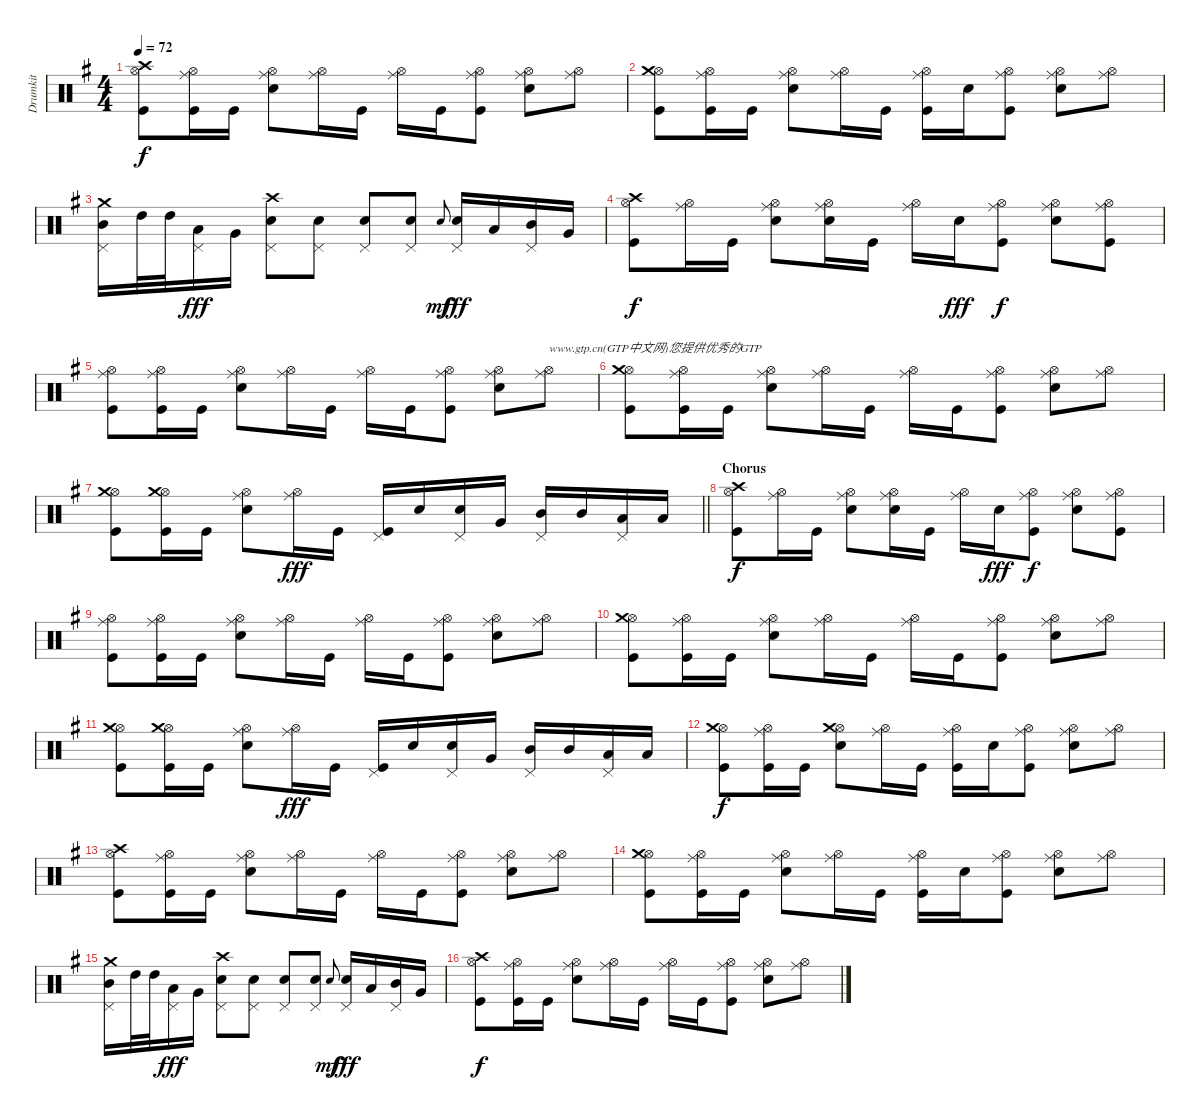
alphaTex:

\track ("Drumkit" "Drumkit") {instrument percussion}
\staff {score}
\articulation defaults
\ts (4 4)
\tempo 72
\clef neutral
\ks g
("Hi-Hat (open)" "Crash high (hit)" "Kick (hit)").8{dy f} ("Hi-Hat (open)" "Ride (middle)" "Kick (hit)").16 "Kick (hit)".16 ("Hi-Hat (open)" "Ride (middle)" "Snare (hit) 2").8 ("Hi-Hat (open)" "Ride (middle)").16 "Kick (hit)".16 ("Hi-Hat (open)" "Ride (middle)").16 "Kick (hit)".16 ("Hi-Hat (open)" "Ride (middle)" "Kick (hit)").8 ("Hi-Hat (open)" "Ride (middle)" "Snare (hit) 2").8 ("Hi-Hat (open)" "Ride (middle)").8 |
("Hi-Hat (open)" "Crash medium (hit)" "Kick (hit)").8 ("Hi-Hat (open)" "Ride (middle)" "Kick (hit)").16 "Kick (hit)".16 ("Hi-Hat (open)" "Ride (middle)" "Snare (hit) 2").8 ("Hi-Hat (open)" "Ride (middle)").16 "Kick (hit)".16 ("Hi-Hat (open)" "Ride (middle)" "Kick (hit)").16 "Snare (hit) 2".16 ("Hi-Hat (open)" "Ride (middle)" "Kick (hit)").8 ("Hi-Hat (open)" "Ride (middle)" "Snare (hit) 2").8 ("Hi-Hat (open)" "Ride (middle)").8 |
("Pedal Hi-Hat (hit)" "Crash medium (hit)" "Mid Tom (hit)").16 "High Tom (hit)".32 "High Tom (hit)".32 ("Pedal Hi-Hat (hit)" "Low Tom (hit)").16{dy fff} "Very Low Tom (hit)".16 ("Pedal Hi-Hat (hit)" "Crash high (hit)" "Snare (hit) 2").8 ("Pedal Hi-Hat (hit)" "Snare (hit) 2").8 ("Pedal Hi-Hat (hit)" "Snare (hit) 2").8 ("Pedal Hi-Hat (hit)" "Snare (hit) 2").8 "Snare (hit)".8{gr onbeat dy mf} ("Pedal Hi-Hat (hit)" "Snare (hit) 2").16{dy fff} "Low Tom (hit)".16 ("Pedal Hi-Hat (hit)" "Mid Tom (hit)").16 "Very Low Tom (hit)".16 |
("Hi-Hat (open)" "Crash high (hit)" "Kick (hit)").8{dy f} ("Hi-Hat (open)" "Ride (middle)").16 "Kick (hit)".16 ("Hi-Hat (open)" "Ride (middle)" "Snare (hit) 2").8 ("Hi-Hat (open)" "Ride (middle)" "Snare (hit) 2").16 "Kick (hit)".16 ("Hi-Hat (open)" "Ride (middle)").16 "Snare (hit) 2".16{dy fff} ("Hi-Hat (open)" "Ride (middle)" "Kick (hit)").8{dy f} ("Hi-Hat (open)" "Ride (middle)" "Snare (hit) 2").8 ("Hi-Hat (open)" "Ride (middle)" "Kick (hit)").8 |
("Hi-Hat (open)" "Ride (middle)" "Kick (hit)").8 ("Hi-Hat (open)" "Ride (middle)" "Kick (hit)").16 "Kick (hit)".16 ("Hi-Hat (open)" "Ride (middle)" "Snare (hit) 2").8 ("Hi-Hat (open)" "Ride (middle)").16 "Kick (hit)".16 ("Hi-Hat (open)" "Ride (middle)").16 "Kick (hit)".16 ("Hi-Hat (open)" "Ride (middle)" "Kick (hit)").8 ("Hi-Hat (open)" "Ride (middle)" "Snare (hit) 2").8 ("Hi-Hat (open)" "Ride (middle)").8{txt "www.gtp.cn(GTP中文网)您提供优秀的GTP"} |
("Hi-Hat (open)" "Crash medium (hit)" "Kick (hit)").8 ("Hi-Hat (open)" "Ride (middle)" "Kick (hit)").16 "Kick (hit)".16 ("Hi-Hat (open)" "Ride (middle)" "Snare (hit) 2").8 ("Hi-Hat (open)" "Ride (middle)").16 "Kick (hit)".16 ("Hi-Hat (open)" "Ride (middle)").16 "Kick (hit)".16 ("Hi-Hat (open)" "Ride (middle)" "Kick (hit)").8 ("Hi-Hat (open)" "Ride (middle)" "Snare (hit) 2").8 ("Hi-Hat (open)" "Ride (middle)").8 |
\barLineRight lightlight
("Hi-Hat (open)" "Crash medium (hit)" "Kick (hit)").8 ("Hi-Hat (open)" "Crash medium (hit)" "Kick (hit)").16 "Kick (hit)".16 ("Hi-Hat (open)" "Ride (middle)" "Snare (hit) 2").8 ("Hi-Hat (open)" "Ride (middle)").16{dy fff} "Kick (hit)".16 ("Pedal Hi-Hat (hit)" "Kick (hit)").16 "Snare (hit) 2".16 ("Pedal Hi-Hat (hit)" "Snare (hit) 2").16 "Very Low Tom (hit)".16 ("Pedal Hi-Hat (hit)" "Mid Tom (hit)").16 "Mid Tom (hit)".16 ("Pedal Hi-Hat (hit)" "Low Tom (hit)").16 "Low Tom (hit)".16 |
\section ("" "Chorus")
("Hi-Hat (open)" "Crash high (hit)" "Kick (hit)").8{dy f} ("Hi-Hat (open)" "Ride (middle)").16 "Kick (hit)".16 ("Hi-Hat (open)" "Ride (middle)" "Snare (hit) 2").8 ("Hi-Hat (open)" "Ride (middle)" "Snare (hit) 2").16 "Kick (hit)".16 ("Hi-Hat (open)" "Ride (middle)").16 "Snare (hit) 2".16{dy fff} ("Hi-Hat (open)" "Ride (middle)" "Kick (hit)").8{dy f} ("Hi-Hat (open)" "Ride (middle)" "Snare (hit) 2").8 ("Hi-Hat (open)" "Ride (middle)" "Kick (hit)").8 |
("Hi-Hat (open)" "Ride (middle)" "Kick (hit)").8 ("Hi-Hat (open)" "Ride (middle)" "Kick (hit)").16 "Kick (hit)".16 ("Hi-Hat (open)" "Ride (middle)" "Snare (hit) 2").8 ("Hi-Hat (open)" "Ride (middle)").16 "Kick (hit)".16 ("Hi-Hat (open)" "Ride (middle)").16 "Kick (hit)".16 ("Hi-Hat (open)" "Ride (middle)" "Kick (hit)").8 ("Hi-Hat (open)" "Ride (middle)" "Snare (hit) 2").8 ("Hi-Hat (open)" "Ride (middle)").8 |
("Hi-Hat (open)" "Crash medium (hit)" "Kick (hit)").8 ("Hi-Hat (open)" "Ride (middle)" "Kick (hit)").16 "Kick (hit)".16 ("Hi-Hat (open)" "Ride (middle)" "Snare (hit) 2").8 ("Hi-Hat (open)" "Ride (middle)").16 "Kick (hit)".16 ("Hi-Hat (open)" "Ride (middle)").16 "Kick (hit)".16 ("Hi-Hat (open)" "Ride (middle)" "Kick (hit)").8 ("Hi-Hat (open)" "Ride (middle)" "Snare (hit) 2").8 ("Hi-Hat (open)" "Ride (middle)").8 |
("Hi-Hat (open)" "Crash medium (hit)" "Kick (hit)").8 ("Hi-Hat (open)" "Crash medium (hit)" "Kick (hit)").16 "Kick (hit)".16 ("Hi-Hat (open)" "Ride (middle)" "Snare (hit) 2").8 ("Hi-Hat (open)" "Ride (middle)").16{dy fff} "Kick (hit)".16 ("Pedal Hi-Hat (hit)" "Kick (hit)").16 "Snare (hit) 2".16 ("Pedal Hi-Hat (hit)" "Snare (hit) 2").16 "Very Low Tom (hit)".16 ("Pedal Hi-Hat (hit)" "Mid Tom (hit)").16 "Mid Tom (hit)".16 ("Pedal Hi-Hat (hit)" "Low Tom (hit)").16 "Low Tom (hit)".16 |
("Hi-Hat (open)" "Crash medium (hit)" "Kick (hit)").8{dy f} ("Hi-Hat (open)" "Ride (middle)" "Kick (hit)").16 "Kick (hit)".16 ("Hi-Hat (open)" "Crash medium (hit)" "Snare (hit) 2").8 ("Hi-Hat (open)" "Ride (middle)").16 "Kick (hit)".16 ("Hi-Hat (open)" "Ride (middle)" "Kick (hit)").16 "Snare (hit) 2".16 ("Hi-Hat (open)" "Ride (middle)" "Kick (hit)").8 ("Hi-Hat (open)" "Ride (middle)" "Snare (hit) 2").8 ("Hi-Hat (open)" "Ride (middle)").8 |
("Hi-Hat (open)" "Crash high (hit)" "Kick (hit)").8 ("Hi-Hat (open)" "Ride (middle)" "Kick (hit)").16 "Kick (hit)".16 ("Hi-Hat (open)" "Ride (middle)" "Snare (hit) 2").8 ("Hi-Hat (open)" "Ride (middle)").16 "Kick (hit)".16 ("Hi-Hat (open)" "Ride (middle)").16 "Kick (hit)".16 ("Hi-Hat (open)" "Ride (middle)" "Kick (hit)").8 ("Hi-Hat (open)" "Ride (middle)" "Snare (hit) 2").8 ("Hi-Hat (open)" "Ride (middle)").8 |
("Hi-Hat (open)" "Crash medium (hit)" "Kick (hit)").8 ("Hi-Hat (open)" "Ride (middle)" "Kick (hit)").16 "Kick (hit)".16 ("Hi-Hat (open)" "Ride (middle)" "Snare (hit) 2").8 ("Hi-Hat (open)" "Ride (middle)").16 "Kick (hit)".16 ("Hi-Hat (open)" "Ride (middle)" "Kick (hit)").16 "Snare (hit) 2".16 ("Hi-Hat (open)" "Ride (middle)" "Kick (hit)").8 ("Hi-Hat (open)" "Ride (middle)" "Snare (hit) 2").8 ("Hi-Hat (open)" "Ride (middle)").8 |
("Pedal Hi-Hat (hit)" "Crash medium (hit)" "Mid Tom (hit)").16 "High Tom (hit)".32 "High Tom (hit)".32 ("Pedal Hi-Hat (hit)" "Low Tom (hit)").16{dy fff} "Very Low Tom (hit)".16 ("Pedal Hi-Hat (hit)" "Crash high (hit)" "Snare (hit) 2").8 ("Pedal Hi-Hat (hit)" "Snare (hit) 2").8 ("Pedal Hi-Hat (hit)" "Snare (hit) 2").8 ("Pedal Hi-Hat (hit)" "Snare (hit) 2").8 "Snare (hit)".8{gr onbeat dy mf} ("Pedal Hi-Hat (hit)" "Snare (hit) 2").16{dy fff} "Low Tom (hit)".16 ("Pedal Hi-Hat (hit)" "Mid Tom (hit)").16 "Very Low Tom (hit)".16 |
("Hi-Hat (open)" "Crash high (hit)" "Kick (hit)").8{dy f} ("Hi-Hat (open)" "Ride (middle)" "Kick (hit)").16 "Kick (hit)".16 ("Hi-Hat (open)" "Ride (middle)" "Snare (hit) 2").8 ("Hi-Hat (open)" "Ride (middle)").16 "Kick (hit)".16 ("Hi-Hat (open)" "Ride (middle)").16 "Kick (hit)".16 ("Hi-Hat (open)" "Ride (middle)" "Kick (hit)").8 ("Hi-Hat (open)" "Ride (middle)" "Snare (hit) 2").8 ("Hi-Hat (open)" "Ride (middle)").8
